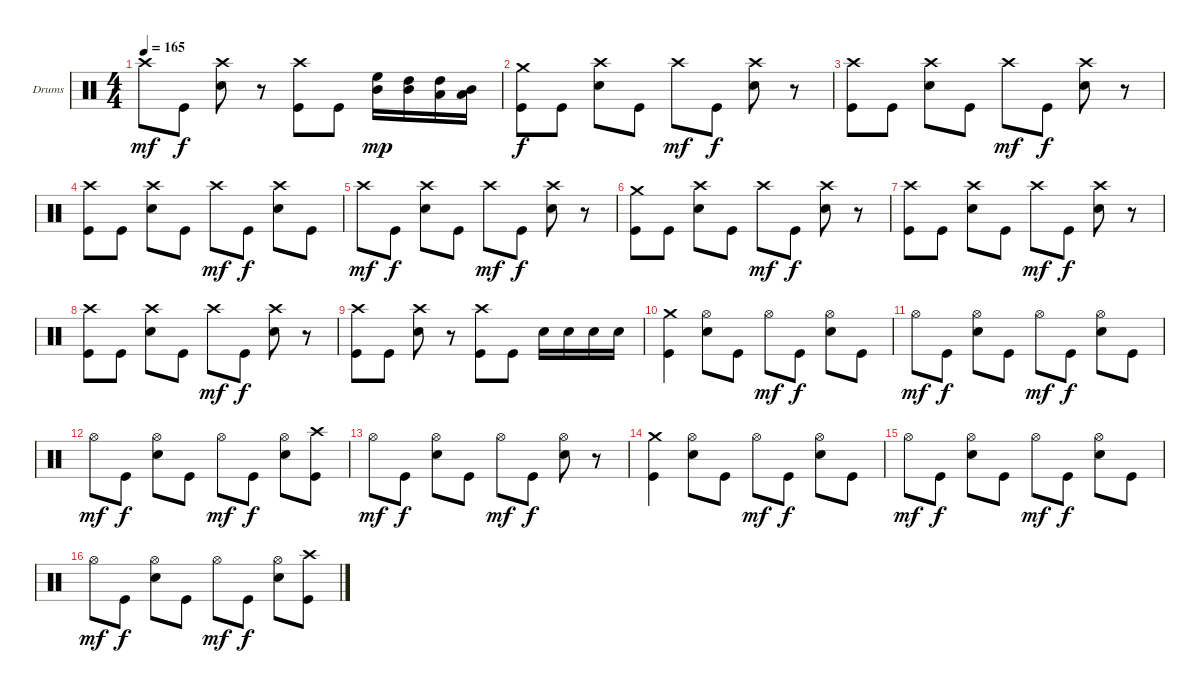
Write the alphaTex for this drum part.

\bracketExtendMode groupsimilarinstruments
\firstSystemTrackNameOrientation horizontal
\otherSystemsTrackNameOrientation horizontal
\track ("Drumkit Midi" "Drums") {instrument percussion}
\staff {score}
\articulation defaults
\ts (4 4)
\tempo 165
\clef neutral
\ks c "Crash high (hit)".8{dy mf} "Kick (hit)".8{dy f}
("Snare (hit) 2" "Crash high (hit)").8 r.8 ("Kick (hit)" "Crash high (hit)").8 "Kick (hit)".8 ("High Floor Tom (hit)" "Mid Tom (hit)").16{dy mp} ("High Tom (hit)" "Mid Tom (hit)").16 ("High Tom (hit)" "Low Tom (hit)").16 ("Mid Tom (hit)" "Low Tom (hit)").16 |
("Kick (hit)" "Crash medium (hit)").8{dy f} "Kick (hit)".8 ("Snare (hit) 2" "Crash high (hit)").8 "Kick (hit)".8 "Crash high (hit)".8{dy mf} "Kick (hit)".8{dy f} ("Snare (hit) 2" "Crash high (hit)").8 r.8 |
("Kick (hit)" "Crash high (hit)").8 "Kick (hit)".8 ("Snare (hit) 2" "Crash high (hit)").8 "Kick (hit)".8 "Crash high (hit)".8{dy mf} "Kick (hit)".8{dy f} ("Snare (hit) 2" "Crash high (hit)").8 r.8 |
("Kick (hit)" "Crash high (hit)").8 "Kick (hit)".8 ("Snare (hit) 2" "Crash high (hit)").8 "Kick (hit)".8 "Crash high (hit)".8{dy mf} "Kick (hit)".8{dy f} ("Snare (hit) 2" "Crash high (hit)").8 "Kick (hit)".8 |
"Crash high (hit)".8{dy mf} "Kick (hit)".8{dy f} ("Snare (hit) 2" "Crash high (hit)").8 "Kick (hit)".8 "Crash high (hit)".8{dy mf} "Kick (hit)".8{dy f} ("Snare (hit) 2" "Crash high (hit)").8 r.8 |
("Kick (hit)" "Crash medium (hit)").8 "Kick (hit)".8 ("Snare (hit) 2" "Crash high (hit)").8 "Kick (hit)".8 "Crash high (hit)".8{dy mf} "Kick (hit)".8{dy f} ("Snare (hit) 2" "Crash high (hit)").8 r.8 |
("Kick (hit)" "Crash high (hit)").8 "Kick (hit)".8 ("Snare (hit) 2" "Crash high (hit)").8 "Kick (hit)".8 "Crash high (hit)".8{dy mf} "Kick (hit)".8{dy f} ("Snare (hit) 2" "Crash high (hit)").8 r.8 |
("Kick (hit)" "Crash high (hit)").8 "Kick (hit)".8 ("Snare (hit) 2" "Crash high (hit)").8 "Kick (hit)".8 "Crash high (hit)".8{dy mf} "Kick (hit)".8{dy f} ("Snare (hit) 2" "Crash high (hit)").8 r.8 |
("Kick (hit)" "Crash high (hit)").8 "Kick (hit)".8 ("Snare (hit) 2" "Crash high (hit)").8 r.8 ("Kick (hit)" "Crash high (hit)").8 "Kick (hit)".8 "Snare (hit) 2".16 "Snare (hit) 2".16 "Snare (hit) 2".16 "Snare (hit) 2".16 |
("Kick (hit)" "Crash medium (hit)").4 ("Snare (hit) 2" "Hi-Hat (open)").8 "Kick (hit)".8 "Hi-Hat (open)".8{dy mf} "Kick (hit)".8{dy f} ("Snare (hit) 2" "Hi-Hat (open)").8 "Kick (hit)".8 |
"Hi-Hat (open)".8{dy mf} "Kick (hit)".8{dy f} ("Snare (hit) 2" "Hi-Hat (open)").8 "Kick (hit)".8 "Hi-Hat (open)".8{dy mf} "Kick (hit)".8{dy f} ("Snare (hit) 2" "Hi-Hat (open)").8 "Kick (hit)".8 |
"Hi-Hat (open)".8{dy mf} "Kick (hit)".8{dy f} ("Snare (hit) 2" "Hi-Hat (open)").8 "Kick (hit)".8 "Hi-Hat (open)".8{dy mf} "Kick (hit)".8{dy f} ("Snare (hit) 2" "Hi-Hat (open)").8 ("Kick (hit)" "Crash high (hit)").8 |
"Hi-Hat (open)".8{dy mf} "Kick (hit)".8{dy f} ("Snare (hit) 2" "Hi-Hat (open)").8 "Kick (hit)".8 "Hi-Hat (open)".8{dy mf} "Kick (hit)".8{dy f} ("Snare (hit) 2" "Hi-Hat (open)").8 r.8 |
("Kick (hit)" "Crash medium (hit)").4 ("Snare (hit) 2" "Hi-Hat (open)").8 "Kick (hit)".8 "Hi-Hat (open)".8{dy mf} "Kick (hit)".8{dy f} ("Snare (hit) 2" "Hi-Hat (open)").8 "Kick (hit)".8 |
"Hi-Hat (open)".8{dy mf} "Kick (hit)".8{dy f} ("Snare (hit) 2" "Hi-Hat (open)").8 "Kick (hit)".8 "Hi-Hat (open)".8{dy mf} "Kick (hit)".8{dy f} ("Snare (hit) 2" "Hi-Hat (open)").8 "Kick (hit)".8 |
"Hi-Hat (open)".8{dy mf} "Kick (hit)".8{dy f} ("Snare (hit) 2" "Hi-Hat (open)").8 "Kick (hit)".8 "Hi-Hat (open)".8{dy mf} "Kick (hit)".8{dy f} ("Snare (hit) 2" "Hi-Hat (open)").8 ("Kick (hit)" "Crash high (hit)").8
